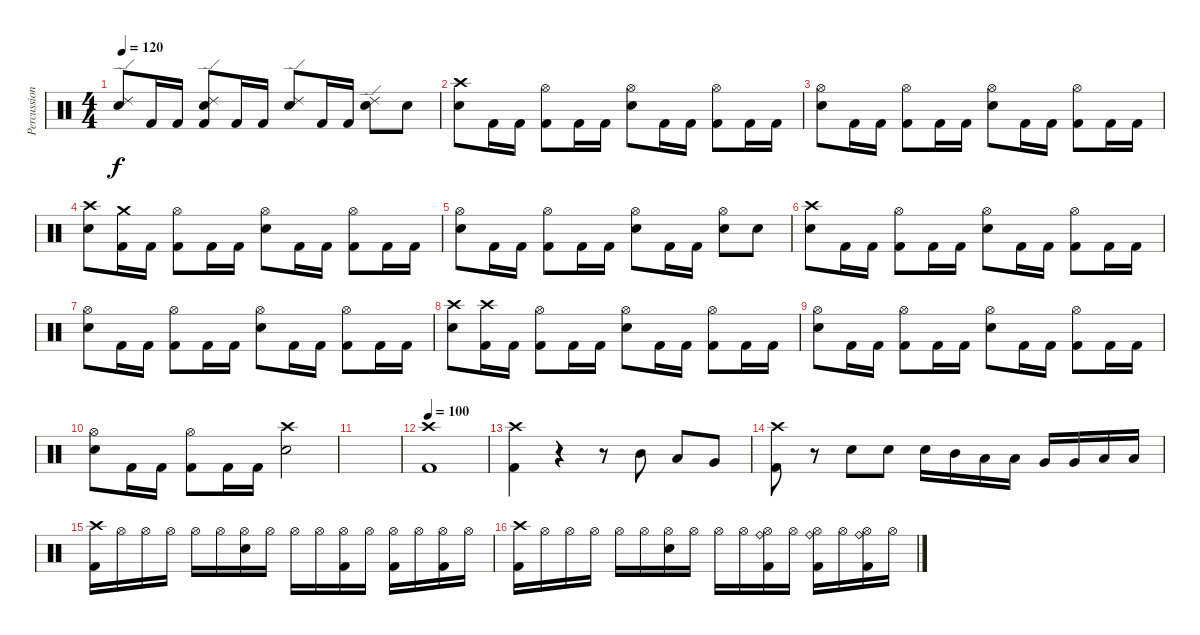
\track ("Percussion" "Percussion") {instrument percussion}
\staff {score}
\articulation defaults
\ts (4 4)
\tempo 120
\clef neutral
\ks c
("Ride (edge) 2" "Snare (hit) 2").8{dy f} "Kick (hit) 2".16 "Kick (hit) 2".16 ("Ride (edge) 2" "Snare (hit) 2" "Kick (hit) 2").8 "Kick (hit) 2".16 "Kick (hit) 2".16 ("Ride (edge) 2" "Snare (hit) 2").8 "Kick (hit) 2".16 "Kick (hit) 2".16 ("Ride (edge) 2" "Snare (hit) 2").8 "Snare (hit) 2".8 |
("Crash high (hit)" "Snare (hit) 2").8 "Kick (hit) 2".16 "Kick (hit) 2".16 ("Hi-Hat (open)" "Kick (hit) 2").8 "Kick (hit) 2".16 "Kick (hit) 2".16 ("Hi-Hat (open)" "Snare (hit) 2").8 "Kick (hit) 2".16 "Kick (hit) 2".16 ("Hi-Hat (open)" "Kick (hit) 2").8 "Kick (hit) 2".16 "Kick (hit) 2".16 |
("Hi-Hat (open)" "Snare (hit) 2").8 "Kick (hit) 2".16 "Kick (hit) 2".16 ("Hi-Hat (open)" "Kick (hit) 2").8 "Kick (hit) 2".16 "Kick (hit) 2".16 ("Hi-Hat (open)" "Snare (hit) 2").8 "Kick (hit) 2".16 "Kick (hit) 2".16 ("Hi-Hat (open)" "Kick (hit) 2").8 "Kick (hit) 2".16 "Kick (hit) 2".16 |
("Crash high (hit)" "Snare (hit) 2").8 ("Crash medium (hit)" "Kick (hit) 2").16 "Kick (hit) 2".16 ("Hi-Hat (open)" "Kick (hit) 2").8 "Kick (hit) 2".16 "Kick (hit) 2".16 ("Hi-Hat (open)" "Snare (hit) 2").8 "Kick (hit) 2".16 "Kick (hit) 2".16 ("Hi-Hat (open)" "Kick (hit) 2").8 "Kick (hit) 2".16 "Kick (hit) 2".16 |
("Hi-Hat (open)" "Snare (hit) 2").8 "Kick (hit) 2".16 "Kick (hit) 2".16 ("Hi-Hat (open)" "Kick (hit) 2").8 "Kick (hit) 2".16 "Kick (hit) 2".16 ("Hi-Hat (open)" "Snare (hit) 2").8 "Kick (hit) 2".16 "Kick (hit) 2".16 ("Hi-Hat (open)" "Snare (hit) 2").8 "Snare (hit) 2".8 |
("Crash high (hit)" "Snare (hit) 2").8 "Kick (hit) 2".16 "Kick (hit) 2".16 ("Hi-Hat (open)" "Kick (hit) 2").8 "Kick (hit) 2".16 "Kick (hit) 2".16 ("Hi-Hat (open)" "Snare (hit) 2").8 "Kick (hit) 2".16 "Kick (hit) 2".16 ("Hi-Hat (open)" "Kick (hit) 2").8 "Kick (hit) 2".16 "Kick (hit) 2".16 |
("Hi-Hat (open)" "Snare (hit) 2").8 "Kick (hit) 2".16 "Kick (hit) 2".16 ("Hi-Hat (open)" "Kick (hit) 2").8 "Kick (hit) 2".16 "Kick (hit) 2".16 ("Hi-Hat (open)" "Snare (hit) 2").8 "Kick (hit) 2".16 "Kick (hit) 2".16 ("Hi-Hat (open)" "Kick (hit) 2").8 "Kick (hit) 2".16 "Kick (hit) 2".16 |
("Crash high (hit)" "Snare (hit) 2").8 ("Crash high (hit)" "Kick (hit) 2").16 "Kick (hit) 2".16 ("Hi-Hat (open)" "Kick (hit) 2").8 "Kick (hit) 2".16 "Kick (hit) 2".16 ("Hi-Hat (open)" "Snare (hit) 2").8 "Kick (hit) 2".16 "Kick (hit) 2".16 ("Hi-Hat (open)" "Kick (hit) 2").8 "Kick (hit) 2".16 "Kick (hit) 2".16 |
("Hi-Hat (open)" "Snare (hit) 2").8 "Kick (hit) 2".16 "Kick (hit) 2".16 ("Hi-Hat (open)" "Kick (hit) 2").8 "Kick (hit) 2".16 "Kick (hit) 2".16 ("Hi-Hat (open)" "Snare (hit) 2").8 "Kick (hit) 2".16 "Kick (hit) 2".16 ("Hi-Hat (open)" "Kick (hit) 2").8 "Kick (hit) 2".16 "Kick (hit) 2".16 |
("Hi-Hat (open)" "Snare (hit) 2").8 "Kick (hit) 2".16 "Kick (hit) 2".16 ("Hi-Hat (open)" "Kick (hit) 2").8 "Kick (hit) 2".16 "Kick (hit) 2".16 ("Crash high (hit)" "Snare (hit) 2").2 |
|
\tempo 100
("Crash high (hit)" "Kick (hit) 2").1 |
("Crash high (hit)" "Kick (hit) 2").4 r.4 r.8 "Mid Tom (hit)".8 "Low Tom (hit)".8 "Very Low Tom (hit)".8 |
("Crash high (hit)" "Kick (hit) 2").8 r.8 "Snare (hit) 2".8 "Snare (hit) 2".8 "Snare (hit) 2".16 "Mid Tom (hit)".16 "Low Tom (hit)".16 "Low Tom (hit)".16 "Very Low Tom (hit)".16 "Very Low Tom (hit)".16 "Low Floor Tom (hit)".16 "Low Floor Tom (hit)".16 |
("Crash high (hit)" "Kick (hit) 2").16 "Hi-Hat (open)".16 "Hi-Hat (open)".16 "Hi-Hat (open)".16 "Hi-Hat (open)".16 "Hi-Hat (open)".16 ("Hi-Hat (open)" "Snare (hit) 2").16 "Hi-Hat (open)".16 "Hi-Hat (open)".16 "Hi-Hat (open)".16 ("Hi-Hat (open)" "Kick (hit) 2").16 "Hi-Hat (open)".16 ("Hi-Hat (open)" "Kick (hit) 2").16 "Hi-Hat (open)".16 ("Hi-Hat (open)" "Kick (hit) 2").16 "Hi-Hat (open)".16 |
("Crash high (hit)" "Kick (hit) 2").16 "Hi-Hat (open)".16 "Hi-Hat (open)".16 "Hi-Hat (open)".16 "Hi-Hat (open)".16 "Hi-Hat (open)".16 ("Hi-Hat (open)" "Snare (hit) 2").16 "Hi-Hat (open)".16 "Hi-Hat (open)".16 "Hi-Hat (open)".16 ("Hi-Hat (open)" "Ride (bell)" "Kick (hit) 2").16 "Hi-Hat (open)".16 ("Hi-Hat (open)" "Ride (bell)" "Kick (hit) 2").16 "Hi-Hat (open)".16 ("Hi-Hat (open)" "Ride (bell)" "Kick (hit) 2").16 "Hi-Hat (open)".16
